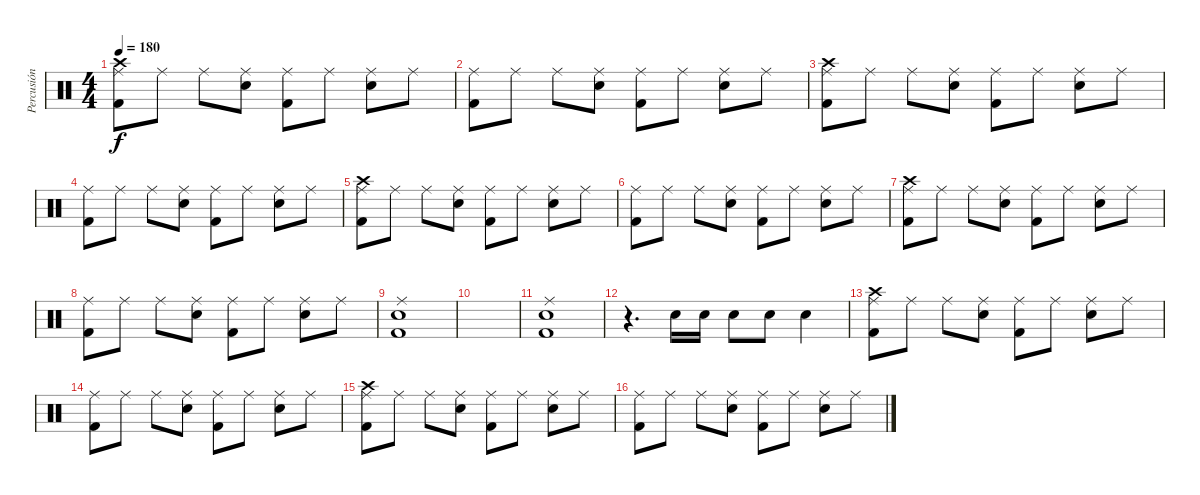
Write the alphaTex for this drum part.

\track ("Percusión" "Percusión") {instrument percussion}
\staff {score}
\articulation defaults
\ts (4 4)
\tempo 180
\clef neutral
\ks c
("Kick (hit) 2" "Crash high (hit)" "Ride (middle)").8{dy f} "Ride (middle)".8 "Ride (middle)".8 ("Snare (hit) 2" "Ride (middle)").8 ("Kick (hit) 2" "Ride (middle)").8 "Ride (middle)".8 ("Snare (hit) 2" "Ride (middle)").8 "Ride (middle)".8 |
("Kick (hit) 2" "Ride (middle)").8 "Ride (middle)".8 "Ride (middle)".8 ("Snare (hit) 2" "Ride (middle)").8 ("Kick (hit) 2" "Ride (middle)").8 "Ride (middle)".8 ("Snare (hit) 2" "Ride (middle)").8 "Ride (middle)".8 |
("Kick (hit) 2" "Crash high (hit)" "Ride (middle)").8 "Ride (middle)".8 "Ride (middle)".8 ("Snare (hit) 2" "Ride (middle)").8 ("Kick (hit) 2" "Ride (middle)").8 "Ride (middle)".8 ("Snare (hit) 2" "Ride (middle)").8 "Ride (middle)".8 |
("Kick (hit) 2" "Ride (middle)").8 "Ride (middle)".8 "Ride (middle)".8 ("Snare (hit) 2" "Ride (middle)").8 ("Kick (hit) 2" "Ride (middle)").8 "Ride (middle)".8 ("Snare (hit) 2" "Ride (middle)").8 "Ride (middle)".8 |
("Kick (hit) 2" "Crash high (hit)" "Ride (middle)").8 "Ride (middle)".8 "Ride (middle)".8 ("Snare (hit) 2" "Ride (middle)").8 ("Kick (hit) 2" "Ride (middle)").8 "Ride (middle)".8 ("Snare (hit) 2" "Ride (middle)").8 "Ride (middle)".8 |
("Kick (hit) 2" "Ride (middle)").8 "Ride (middle)".8 "Ride (middle)".8 ("Snare (hit) 2" "Ride (middle)").8 ("Kick (hit) 2" "Ride (middle)").8 "Ride (middle)".8 ("Snare (hit) 2" "Ride (middle)").8 "Ride (middle)".8 |
("Kick (hit) 2" "Crash high (hit)" "Ride (middle)").8 "Ride (middle)".8 "Ride (middle)".8 ("Snare (hit) 2" "Ride (middle)").8 ("Kick (hit) 2" "Ride (middle)").8 "Ride (middle)".8 ("Snare (hit) 2" "Ride (middle)").8 "Ride (middle)".8 |
("Kick (hit) 2" "Ride (middle)").8 "Ride (middle)".8 "Ride (middle)".8 ("Snare (hit) 2" "Ride (middle)").8 ("Kick (hit) 2" "Ride (middle)").8 "Ride (middle)".8 ("Snare (hit) 2" "Ride (middle)").8 "Ride (middle)".8 |
("Kick (hit) 2" "Snare (hit) 2" "Ride (middle)").1 |
|
("Kick (hit) 2" "Snare (hit) 2" "Ride (middle)").1 |
r.4{d} "Snare (hit) 2".16 "Snare (hit) 2".16 "Snare (hit) 2".8 "Snare (hit) 2".8 "Snare (hit) 2".4 |
("Kick (hit) 2" "Crash high (hit)" "Ride (middle)").8 "Ride (middle)".8 "Ride (middle)".8 ("Snare (hit) 2" "Ride (middle)").8 ("Kick (hit) 2" "Ride (middle)").8 "Ride (middle)".8 ("Snare (hit) 2" "Ride (middle)").8 "Ride (middle)".8 |
("Kick (hit) 2" "Ride (middle)").8 "Ride (middle)".8 "Ride (middle)".8 ("Snare (hit) 2" "Ride (middle)").8 ("Kick (hit) 2" "Ride (middle)").8 "Ride (middle)".8 ("Snare (hit) 2" "Ride (middle)").8 "Ride (middle)".8 |
("Kick (hit) 2" "Crash high (hit)" "Ride (middle)").8 "Ride (middle)".8 "Ride (middle)".8 ("Snare (hit) 2" "Ride (middle)").8 ("Kick (hit) 2" "Ride (middle)").8 "Ride (middle)".8 ("Snare (hit) 2" "Ride (middle)").8 "Ride (middle)".8 |
("Kick (hit) 2" "Ride (middle)").8 "Ride (middle)".8 "Ride (middle)".8 ("Snare (hit) 2" "Ride (middle)").8 ("Kick (hit) 2" "Ride (middle)").8 "Ride (middle)".8 ("Snare (hit) 2" "Ride (middle)").8 "Ride (middle)".8
